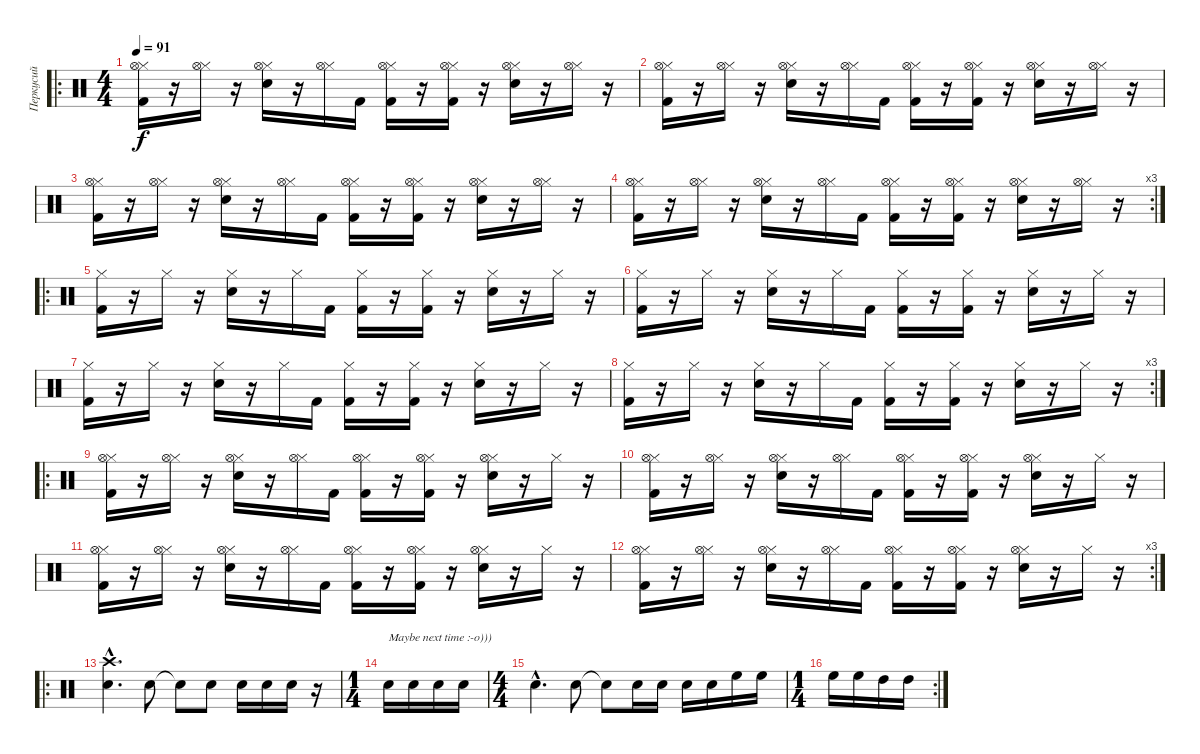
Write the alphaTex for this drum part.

\track ("Перкусий" "Перкусий") {instrument percussion}
\staff {score}
\articulation defaults
\ro
\ts (4 4)
\tempo 91
\clef neutral
\ks c
("Kick (hit) 2" "Hi-Hat (closed)" "Hi-Hat (open)").16{dy f} r.16 ("Hi-Hat (closed)" "Hi-Hat (open)").16 r.16 ("Electric Snare (hit)" "Hi-Hat (closed)" "Hi-Hat (open)").16 r.16 ("Hi-Hat (closed)" "Hi-Hat (open)").16 "Kick (hit) 2".16 ("Kick (hit) 2" "Hi-Hat (closed)" "Hi-Hat (open)").16 r.16 ("Kick (hit) 2" "Hi-Hat (closed)" "Hi-Hat (open)").16 r.16 ("Electric Snare (hit)" "Hi-Hat (closed)" "Hi-Hat (open)").16 r.16 ("Hi-Hat (closed)" "Hi-Hat (open)").16 r.16 |
("Kick (hit) 2" "Hi-Hat (closed)" "Hi-Hat (open)").16 r.16 ("Hi-Hat (closed)" "Hi-Hat (open)").16 r.16 ("Electric Snare (hit)" "Hi-Hat (closed)" "Hi-Hat (open)").16 r.16 ("Hi-Hat (closed)" "Hi-Hat (open)").16 "Kick (hit) 2".16 ("Kick (hit) 2" "Hi-Hat (closed)" "Hi-Hat (open)").16 r.16 ("Kick (hit) 2" "Hi-Hat (closed)" "Hi-Hat (open)").16 r.16 ("Electric Snare (hit)" "Hi-Hat (closed)" "Hi-Hat (open)").16 r.16 ("Hi-Hat (closed)" "Hi-Hat (open)").16 r.16 |
("Kick (hit) 2" "Hi-Hat (closed)" "Hi-Hat (open)").16 r.16 ("Hi-Hat (closed)" "Hi-Hat (open)").16 r.16 ("Electric Snare (hit)" "Hi-Hat (closed)" "Hi-Hat (open)").16 r.16 ("Hi-Hat (closed)" "Hi-Hat (open)").16 "Kick (hit) 2".16 ("Kick (hit) 2" "Hi-Hat (closed)" "Hi-Hat (open)").16 r.16 ("Kick (hit) 2" "Hi-Hat (closed)" "Hi-Hat (open)").16 r.16 ("Electric Snare (hit)" "Hi-Hat (closed)" "Hi-Hat (open)").16 r.16 ("Hi-Hat (closed)" "Hi-Hat (open)").16 r.16 |
\rc 3
("Kick (hit) 2" "Hi-Hat (closed)" "Hi-Hat (open)").16 r.16 ("Hi-Hat (closed)" "Hi-Hat (open)").16 r.16 ("Electric Snare (hit)" "Hi-Hat (closed)" "Hi-Hat (open)").16 r.16 ("Hi-Hat (closed)" "Hi-Hat (open)").16 "Kick (hit) 2".16 ("Kick (hit) 2" "Hi-Hat (closed)" "Hi-Hat (open)").16 r.16 ("Kick (hit) 2" "Hi-Hat (closed)" "Hi-Hat (open)").16 r.16 ("Electric Snare (hit)" "Hi-Hat (closed)" "Hi-Hat (open)").16 r.16 ("Hi-Hat (closed)" "Hi-Hat (open)").16 r.16 |
\ro
("Kick (hit) 2" "Hi-Hat (closed)").16 r.16 "Hi-Hat (closed)".16 r.16 ("Electric Snare (hit)" "Hi-Hat (closed)").16 r.16 "Hi-Hat (closed)".16 "Kick (hit) 2".16 ("Kick (hit) 2" "Hi-Hat (closed)").16 r.16 ("Kick (hit) 2" "Hi-Hat (closed)").16 r.16 ("Electric Snare (hit)" "Hi-Hat (closed)").16 r.16 "Hi-Hat (closed)".16 r.16 |
("Kick (hit) 2" "Hi-Hat (closed)").16 r.16 "Hi-Hat (closed)".16 r.16 ("Electric Snare (hit)" "Hi-Hat (closed)").16 r.16 "Hi-Hat (closed)".16 "Kick (hit) 2".16 ("Kick (hit) 2" "Hi-Hat (closed)").16 r.16 ("Kick (hit) 2" "Hi-Hat (closed)").16 r.16 ("Electric Snare (hit)" "Hi-Hat (closed)").16 r.16 "Hi-Hat (closed)".16 r.16 |
("Kick (hit) 2" "Hi-Hat (closed)").16 r.16 "Hi-Hat (closed)".16 r.16 ("Electric Snare (hit)" "Hi-Hat (closed)").16 r.16 "Hi-Hat (closed)".16 "Kick (hit) 2".16 ("Kick (hit) 2" "Hi-Hat (closed)").16 r.16 ("Kick (hit) 2" "Hi-Hat (closed)").16 r.16 ("Electric Snare (hit)" "Hi-Hat (closed)").16 r.16 "Hi-Hat (closed)".16 r.16 |
\rc 3
("Kick (hit) 2" "Hi-Hat (closed)").16 r.16 "Hi-Hat (closed)".16 r.16 ("Electric Snare (hit)" "Hi-Hat (closed)").16 r.16 "Hi-Hat (closed)".16 "Kick (hit) 2".16 ("Kick (hit) 2" "Hi-Hat (closed)").16 r.16 ("Kick (hit) 2" "Hi-Hat (closed)").16 r.16 ("Electric Snare (hit)" "Hi-Hat (closed)").16 r.16 "Hi-Hat (closed)".16 r.16 |
\ro
("Kick (hit) 2" "Hi-Hat (closed)" "Hi-Hat (open)").16 r.16 ("Hi-Hat (closed)" "Hi-Hat (open)").16 r.16 ("Electric Snare (hit)" "Hi-Hat (closed)" "Hi-Hat (open)").16 r.16 ("Hi-Hat (closed)" "Hi-Hat (open)").16 "Kick (hit) 2".16 ("Kick (hit) 2" "Hi-Hat (closed)" "Hi-Hat (open)").16 r.16 ("Kick (hit) 2" "Hi-Hat (closed)" "Hi-Hat (open)").16 r.16 ("Electric Snare (hit)" "Hi-Hat (closed)" "Hi-Hat (open)").16 r.16 "Hi-Hat (closed)".16 r.16 |
("Kick (hit) 2" "Hi-Hat (closed)" "Hi-Hat (open)").16 r.16 ("Hi-Hat (closed)" "Hi-Hat (open)").16 r.16 ("Electric Snare (hit)" "Hi-Hat (closed)" "Hi-Hat (open)").16 r.16 ("Hi-Hat (closed)" "Hi-Hat (open)").16 "Kick (hit) 2".16 ("Kick (hit) 2" "Hi-Hat (closed)" "Hi-Hat (open)").16 r.16 ("Kick (hit) 2" "Hi-Hat (closed)" "Hi-Hat (open)").16 r.16 ("Electric Snare (hit)" "Hi-Hat (closed)" "Hi-Hat (open)").16 r.16 "Hi-Hat (closed)".16 r.16 |
("Kick (hit) 2" "Hi-Hat (closed)" "Hi-Hat (open)").16 r.16 ("Hi-Hat (closed)" "Hi-Hat (open)").16 r.16 ("Electric Snare (hit)" "Hi-Hat (closed)" "Hi-Hat (open)").16 r.16 ("Hi-Hat (closed)" "Hi-Hat (open)").16 "Kick (hit) 2".16 ("Kick (hit) 2" "Hi-Hat (closed)" "Hi-Hat (open)").16 r.16 ("Kick (hit) 2" "Hi-Hat (closed)" "Hi-Hat (open)").16 r.16 ("Electric Snare (hit)" "Hi-Hat (closed)" "Hi-Hat (open)").16 r.16 "Hi-Hat (closed)".16 r.16 |
\rc 3
("Kick (hit) 2" "Hi-Hat (closed)" "Hi-Hat (open)").16 r.16 ("Hi-Hat (closed)" "Hi-Hat (open)").16 r.16 ("Electric Snare (hit)" "Hi-Hat (closed)" "Hi-Hat (open)").16 r.16 ("Hi-Hat (closed)" "Hi-Hat (open)").16 "Kick (hit) 2".16 ("Kick (hit) 2" "Hi-Hat (closed)" "Hi-Hat (open)").16 r.16 ("Kick (hit) 2" "Hi-Hat (closed)" "Hi-Hat (open)").16 r.16 ("Electric Snare (hit)" "Hi-Hat (closed)" "Hi-Hat (open)").16 r.16 "Hi-Hat (closed)".16 r.16 |
\ro
("Crash high (hit)"{hac} "Electric Snare (hit)"{hac}).4{d} "Electric Snare (hit)".8 "Electric Snare (hit)"{t}.8 "Electric Snare (hit)".8 "Electric Snare (hit)".16 "Electric Snare (hit)".16 "Electric Snare (hit)".16 r.16 |
\ts (1 4)
"Electric Snare (hit)".16{txt "Maybe next time :-o)))"} "Electric Snare (hit)".16 "Electric Snare (hit)".16 "Electric Snare (hit)".16 |
\ts (4 4)
"Electric Snare (hit)"{hac}.4{d} "Electric Snare (hit)".8 "Electric Snare (hit)"{t}.8 "Electric Snare (hit)".16 "Electric Snare (hit)".16 "Electric Snare (hit)".16 "Electric Snare (hit)".16 "High Floor Tom (hit)".16 "High Floor Tom (hit)".16 |
\rc 2
\ts (1 4)
"High Floor Tom (hit)".16 "High Floor Tom (hit)".16 "High Tom (hit)".16 "High Tom (hit)".16
